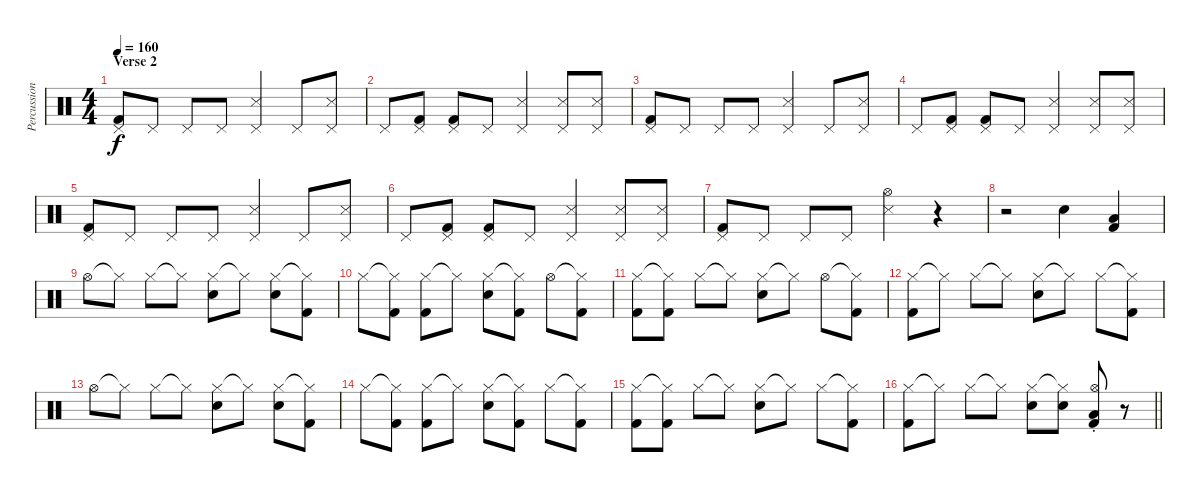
\track ("Percussions" "Percussion") {instrument percussion}
\staff {score}
\articulation defaults
\ts (4 4)
\section ("" "Verse 2")
\tempo 160
\clef neutral
\ks c
("Pedal Hi-Hat (hit)" "Kick (hit) 2").8{dy f} "Pedal Hi-Hat (hit)".8 "Pedal Hi-Hat (hit)".8 "Pedal Hi-Hat (hit)".8 ("Pedal Hi-Hat (hit)" "Snare (side stick) 3").4 "Pedal Hi-Hat (hit)".8 ("Pedal Hi-Hat (hit)" "Snare (side stick) 3").8 |
"Pedal Hi-Hat (hit)".8 ("Pedal Hi-Hat (hit)" "Kick (hit) 2").8 ("Pedal Hi-Hat (hit)" "Kick (hit) 2").8 "Pedal Hi-Hat (hit)".8 ("Pedal Hi-Hat (hit)" "Snare (side stick) 3").4 ("Pedal Hi-Hat (hit)" "Snare (side stick) 3").8 ("Pedal Hi-Hat (hit)" "Snare (side stick) 3").8 |
("Pedal Hi-Hat (hit)" "Kick (hit) 2").8 "Pedal Hi-Hat (hit)".8 "Pedal Hi-Hat (hit)".8 "Pedal Hi-Hat (hit)".8 ("Pedal Hi-Hat (hit)" "Snare (side stick) 3").4 "Pedal Hi-Hat (hit)".8 ("Pedal Hi-Hat (hit)" "Snare (side stick) 3").8 |
"Pedal Hi-Hat (hit)".8 ("Pedal Hi-Hat (hit)" "Kick (hit) 2").8 ("Pedal Hi-Hat (hit)" "Kick (hit) 2").8 "Pedal Hi-Hat (hit)".8 ("Pedal Hi-Hat (hit)" "Snare (side stick) 3").4 ("Pedal Hi-Hat (hit)" "Snare (side stick) 3").8 ("Pedal Hi-Hat (hit)" "Snare (side stick) 3").8 |
("Pedal Hi-Hat (hit)" "Kick (hit) 2").8 "Pedal Hi-Hat (hit)".8 "Pedal Hi-Hat (hit)".8 "Pedal Hi-Hat (hit)".8 ("Pedal Hi-Hat (hit)" "Snare (side stick) 3").4 "Pedal Hi-Hat (hit)".8 ("Pedal Hi-Hat (hit)" "Snare (side stick) 3").8 |
"Pedal Hi-Hat (hit)".8 ("Pedal Hi-Hat (hit)" "Kick (hit) 2").8 ("Pedal Hi-Hat (hit)" "Kick (hit) 2").8 "Pedal Hi-Hat (hit)".8 ("Pedal Hi-Hat (hit)" "Snare (side stick) 3").4 ("Pedal Hi-Hat (hit)" "Snare (side stick) 3").8 ("Pedal Hi-Hat (hit)" "Snare (side stick) 3").8 |
("Pedal Hi-Hat (hit)" "Kick (hit) 2").8 "Pedal Hi-Hat (hit)".8 "Pedal Hi-Hat (hit)".8 "Pedal Hi-Hat (hit)".8 ("Hi-Hat (open)" "Snare (side stick) 3").4 r.4 |
r.2 "Snare (hit) 2".4 ("Low Floor Tom (hit)" "Kick (hit) 2").4 |
"Hi-Hat (open)".8 "Hi-Hat (closed)"{t}.8 "Hi-Hat (closed)".8 "Hi-Hat (closed)"{t}.8 ("Hi-Hat (closed)" "Snare (hit) 2").8 "Hi-Hat (closed)"{t}.8 ("Hi-Hat (closed)" "Snare (hit) 2").8 ("Hi-Hat (closed)"{t} "Kick (hit) 2").8 |
"Hi-Hat (closed)".8 ("Hi-Hat (closed)"{t} "Kick (hit) 2").8 ("Hi-Hat (closed)" "Kick (hit) 2").8 "Hi-Hat (closed)"{t}.8 ("Hi-Hat (closed)" "Snare (hit) 2").8 ("Hi-Hat (closed)"{t} "Kick (hit) 2").8 "Hi-Hat (open)".8 ("Hi-Hat (closed)"{t} "Kick (hit) 2").8 |
("Hi-Hat (closed)" "Kick (hit) 2").8 ("Hi-Hat (closed)"{t} "Kick (hit) 2").8 "Hi-Hat (closed)".8 "Hi-Hat (closed)"{t}.8 ("Hi-Hat (closed)" "Snare (hit) 2").8 "Hi-Hat (closed)"{t}.8 "Hi-Hat (open)".8 ("Hi-Hat (closed)"{t} "Kick (hit) 2").8 |
("Hi-Hat (closed)" "Kick (hit) 2").8 "Hi-Hat (closed)"{t}.8 "Hi-Hat (closed)".8 "Hi-Hat (closed)"{t}.8 ("Hi-Hat (closed)" "Snare (hit) 2").8 "Hi-Hat (closed)"{t}.8 "Hi-Hat (closed)".8 ("Hi-Hat (closed)"{t} "Kick (hit) 2").8 |
"Hi-Hat (open)".8 "Hi-Hat (closed)"{t}.8 "Hi-Hat (closed)".8 "Hi-Hat (closed)"{t}.8 ("Hi-Hat (closed)" "Snare (hit) 2").8 "Hi-Hat (closed)"{t}.8 ("Hi-Hat (closed)" "Snare (hit) 2").8 ("Hi-Hat (closed)"{t} "Kick (hit) 2").8 |
"Hi-Hat (closed)".8 ("Hi-Hat (closed)"{t} "Kick (hit) 2").8 ("Hi-Hat (closed)" "Kick (hit) 2").8 "Hi-Hat (closed)"{t}.8 ("Hi-Hat (closed)" "Snare (hit) 2").8 ("Hi-Hat (closed)"{t} "Kick (hit) 2").8 "Hi-Hat (closed)".8 ("Hi-Hat (closed)"{t} "Kick (hit) 2").8 |
("Hi-Hat (closed)" "Kick (hit) 2").8 ("Hi-Hat (closed)"{t} "Kick (hit) 2").8 "Hi-Hat (closed)".8 "Hi-Hat (closed)"{t}.8 ("Hi-Hat (closed)" "Snare (hit) 2").8 "Hi-Hat (closed)"{t}.8 "Hi-Hat (closed)".8 ("Hi-Hat (closed)"{t} "Kick (hit) 2").8 |
\barLineRight lightlight
("Hi-Hat (closed)" "Kick (hit) 2").8 "Hi-Hat (closed)"{t}.8 "Hi-Hat (closed)".8 "Hi-Hat (closed)"{t}.8 ("Hi-Hat (closed)" "Snare (hit) 2").8 ("Hi-Hat (closed)"{t} "Snare (hit) 2").8 ("Hi-Hat (open)"{st} "Low Floor Tom (hit)" "Kick (hit) 2").8 r.8
